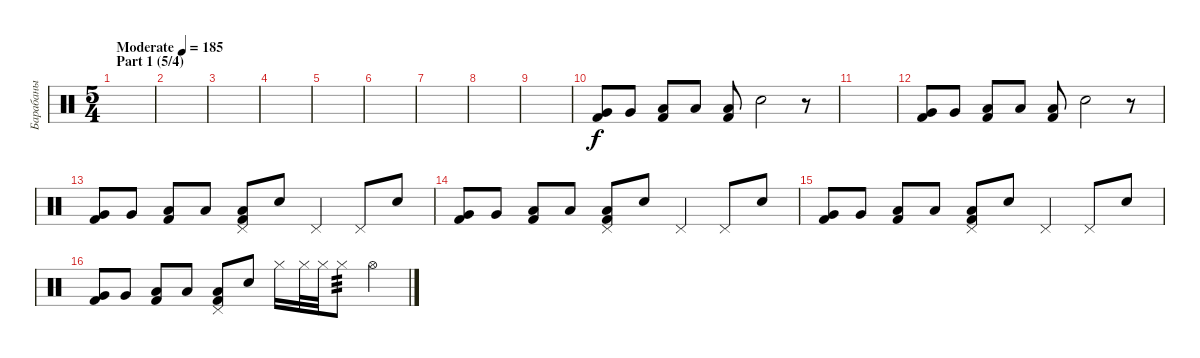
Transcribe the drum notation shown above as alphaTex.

\track ("Барабаны" "Барабаны") {instrument percussion}
\staff {score}
\articulation defaults
\ts (5 4)
\section ("" "Part 1 (5/4)")
\tempo (185 "Moderate")
\clef neutral
\ks c
|
|
|
|
|
|
|
|
|
("Very Low Tom (hit)" "Kick (hit) 2").8 "Very Low Tom (hit)".8 ("Low Floor Tom (hit)" "Kick (hit) 2").8 "Low Floor Tom (hit)".8 ("Low Floor Tom (hit)" "Kick (hit) 2").8 "Electric Snare (hit)".2 r.8 |
|
("Very Low Tom (hit)" "Kick (hit) 2").8 "Very Low Tom (hit)".8 ("Low Floor Tom (hit)" "Kick (hit) 2").8 "Low Floor Tom (hit)".8 ("Low Floor Tom (hit)" "Kick (hit) 2").8 "Electric Snare (hit)".2 r.8 |
("Very Low Tom (hit)" "Kick (hit) 2").8 "Very Low Tom (hit)".8 ("Low Floor Tom (hit)" "Kick (hit) 2").8 "Low Floor Tom (hit)".8 ("Pedal Hi-Hat (hit)" "Low Floor Tom (hit)" "Kick (hit) 2").8 "Electric Snare (hit)".8 "Pedal Hi-Hat (hit)".4 "Pedal Hi-Hat (hit)".8 "Electric Snare (hit)".8 |
("Very Low Tom (hit)" "Kick (hit) 2").8 "Very Low Tom (hit)".8 ("Low Floor Tom (hit)" "Kick (hit) 2").8 "Low Floor Tom (hit)".8 ("Pedal Hi-Hat (hit)" "Low Floor Tom (hit)" "Kick (hit) 2").8 "Electric Snare (hit)".8 "Pedal Hi-Hat (hit)".4 "Pedal Hi-Hat (hit)".8 "Electric Snare (hit)".8 |
("Very Low Tom (hit)" "Kick (hit) 2").8 "Very Low Tom (hit)".8 ("Low Floor Tom (hit)" "Kick (hit) 2").8 "Low Floor Tom (hit)".8 ("Pedal Hi-Hat (hit)" "Low Floor Tom (hit)" "Kick (hit) 2").8 "Electric Snare (hit)".8 "Pedal Hi-Hat (hit)".4 "Pedal Hi-Hat (hit)".8 "Electric Snare (hit)".8 |
("Very Low Tom (hit)" "Kick (hit) 2").8 "Very Low Tom (hit)".8 ("Low Floor Tom (hit)" "Kick (hit) 2").8 "Low Floor Tom (hit)".8 ("Pedal Hi-Hat (hit)" "Low Floor Tom (hit)" "Kick (hit) 2").8 "Electric Snare (hit)".8 "Hi-Hat (closed)".16 "Hi-Hat (closed)".32 "Hi-Hat (closed)".32 "Hi-Hat (closed)".8{tp 3} "Hi-Hat (open)".4
